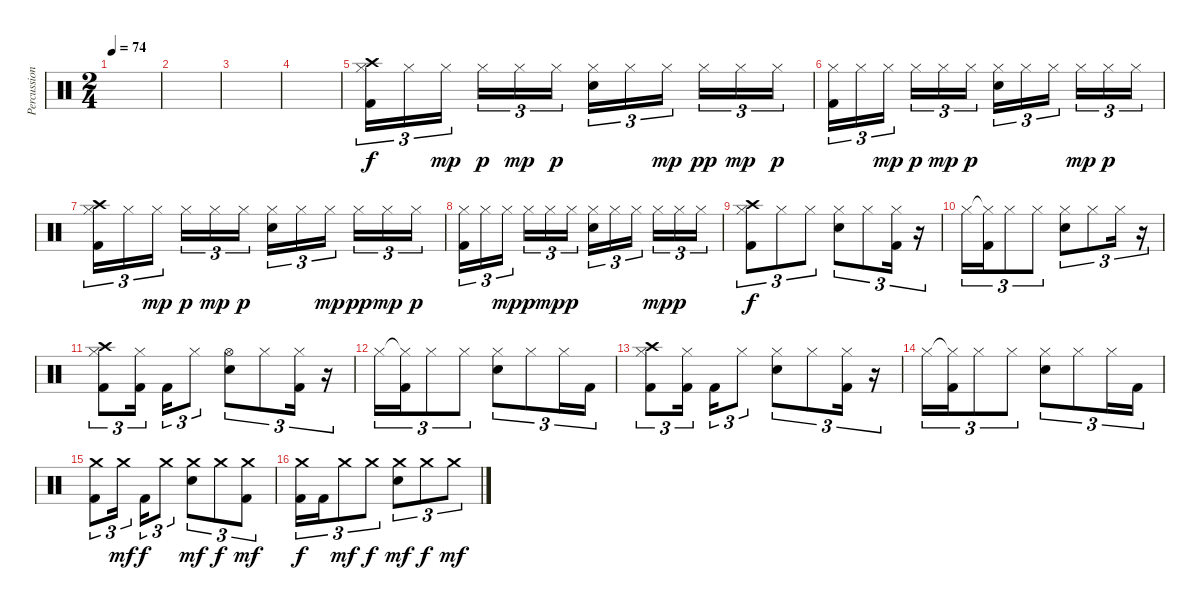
\track ("Percussion" "Percussion") {instrument percussion}
\staff {score}
\articulation defaults
\ts (2 4)
\tempo 74
\clef neutral
\ks c
|
|
|
|
("Crash high (hit)" "Hi-Hat (closed)" "Kick (hit) 2").16{tu (3 2)} "Hi-Hat (closed)".16{tu (3 2)} "Hi-Hat (closed)".16{tu (3 2) dy mp} "Hi-Hat (closed)".16{tu (3 2) dy p} "Hi-Hat (closed)".16{tu (3 2) dy mp} "Hi-Hat (closed)".16{tu (3 2) dy p} ("Hi-Hat (closed)" "Snare (hit) 2").16{tu (3 2)} "Hi-Hat (closed)".16{tu (3 2)} "Hi-Hat (closed)".16{tu (3 2) dy mp} "Hi-Hat (closed)".16{tu (3 2) dy pp} "Hi-Hat (closed)".16{tu (3 2) dy mp} "Hi-Hat (closed)".16{tu (3 2) dy p} |
("Hi-Hat (closed)" "Kick (hit) 2").16{tu (3 2)} "Hi-Hat (closed)".16{tu (3 2)} "Hi-Hat (closed)".16{tu (3 2) dy mp} "Hi-Hat (closed)".16{tu (3 2) dy p} "Hi-Hat (closed)".16{tu (3 2) dy mp} "Hi-Hat (closed)".16{tu (3 2) dy p} ("Hi-Hat (closed)" "Snare (hit) 2").16{tu (3 2)} "Hi-Hat (closed)".16{tu (3 2)} "Hi-Hat (closed)".16{tu (3 2)} "Hi-Hat (closed)".16{tu (3 2) dy mp} "Hi-Hat (closed)".16{tu (3 2) dy p} "Hi-Hat (closed)".16{tu (3 2)} |
("Crash high (hit)" "Hi-Hat (closed)" "Kick (hit) 2").16{tu (3 2)} "Hi-Hat (closed)".16{tu (3 2)} "Hi-Hat (closed)".16{tu (3 2) dy mp} "Hi-Hat (closed)".16{tu (3 2) dy p} "Hi-Hat (closed)".16{tu (3 2) dy mp} "Hi-Hat (closed)".16{tu (3 2) dy p} ("Hi-Hat (closed)" "Snare (hit) 2").16{tu (3 2)} "Hi-Hat (closed)".16{tu (3 2)} "Hi-Hat (closed)".16{tu (3 2) dy mp} "Hi-Hat (closed)".16{tu (3 2) dy pp} "Hi-Hat (closed)".16{tu (3 2) dy mp} "Hi-Hat (closed)".16{tu (3 2) dy p} |
("Hi-Hat (closed)" "Kick (hit) 2").16{tu (3 2)} "Hi-Hat (closed)".16{tu (3 2)} "Hi-Hat (closed)".16{tu (3 2) dy mp} "Hi-Hat (closed)".16{tu (3 2) dy p} "Hi-Hat (closed)".16{tu (3 2) dy mp} "Hi-Hat (closed)".16{tu (3 2) dy p} ("Hi-Hat (closed)" "Snare (hit) 2").16{tu (3 2)} "Hi-Hat (closed)".16{tu (3 2)} "Hi-Hat (closed)".16{tu (3 2)} "Hi-Hat (closed)".16{tu (3 2) dy mp} "Hi-Hat (closed)".16{tu (3 2) dy p} "Hi-Hat (closed)".16{tu (3 2)} |
("Crash high (hit)" "Hi-Hat (closed)" "Kick (hit) 2").8{tu (3 2) dy f} "Hi-Hat (closed)".8{tu (3 2)} "Hi-Hat (closed)".8{tu (3 2)} ("Hi-Hat (closed)" "Snare (hit) 2").8{tu (3 2)} "Hi-Hat (closed)".8{tu (3 2)} ("Hi-Hat (closed)" "Kick (hit) 2").16{tu (3 2)} r.16{tu (3 2)} |
"Hi-Hat (closed)".16{tu (3 2)} ("Hi-Hat (closed)"{t} "Kick (hit) 2").16{tu (3 2)} "Hi-Hat (closed)".8{tu (3 2)} "Hi-Hat (closed)".8{tu (3 2)} ("Hi-Hat (closed)" "Snare (hit) 2").8{tu (3 2)} "Hi-Hat (closed)".8{tu (3 2)} "Hi-Hat (closed)".16{tu (3 2)} r.16{tu (3 2)} |
("Crash high (hit)" "Hi-Hat (closed)" "Kick (hit) 2").8{tu (3 2)} ("Hi-Hat (closed)" "Kick (hit) 2").16{tu (3 2)} "Kick (hit) 2".16{tu (3 2)} "Hi-Hat (closed)".8{tu (3 2)} ("Hi-Hat (open)" "Snare (hit) 2").8{tu (3 2)} "Hi-Hat (closed)".8{tu (3 2)} ("Hi-Hat (closed)" "Kick (hit) 2").16{tu (3 2)} r.16{tu (3 2)} |
"Hi-Hat (closed)".16{tu (3 2)} ("Hi-Hat (closed)"{t} "Kick (hit) 2").16{tu (3 2)} "Hi-Hat (closed)".8{tu (3 2)} "Hi-Hat (closed)".8{tu (3 2)} ("Hi-Hat (closed)" "Snare (hit) 2").8{tu (3 2)} "Hi-Hat (closed)".8{tu (3 2)} "Hi-Hat (closed)".16{tu (3 2)} "Kick (hit) 2".16{tu (3 2)} |
("Crash high (hit)" "Hi-Hat (closed)" "Kick (hit) 2").8{tu (3 2)} ("Hi-Hat (closed)" "Kick (hit) 2").16{tu (3 2)} "Kick (hit) 2".16{tu (3 2)} "Hi-Hat (closed)".8{tu (3 2)} ("Hi-Hat (closed)" "Snare (hit) 2").8{tu (3 2)} "Hi-Hat (closed)".8{tu (3 2)} ("Hi-Hat (closed)" "Kick (hit) 2").16{tu (3 2)} r.16{tu (3 2)} |
"Hi-Hat (closed)".16{tu (3 2)} ("Hi-Hat (closed)"{t} "Kick (hit) 2").16{tu (3 2)} "Hi-Hat (closed)".8{tu (3 2)} "Hi-Hat (closed)".8{tu (3 2)} ("Hi-Hat (closed)" "Snare (hit) 2").8{tu (3 2)} "Hi-Hat (closed)".8{tu (3 2)} "Hi-Hat (closed)".16{tu (3 2)} "Kick (hit) 2".16{tu (3 2)} |
("Crash medium (hit)" "Kick (hit) 2").8{tu (3 2)} "Crash medium (hit)".16{tu (3 2) dy mf} "Kick (hit) 2".16{tu (3 2) dy f} "Crash medium (hit)".8{tu (3 2)} ("Crash medium (hit)" "Snare (hit) 2").8{tu (3 2) dy mf} "Crash medium (hit)".8{tu (3 2) dy f} ("Crash medium (hit)" "Kick (hit) 2").8{tu (3 2) dy mf} |
("Crash medium (hit)" "Kick (hit) 2").16{tu (3 2) dy f} "Kick (hit) 2".16{tu (3 2)} "Crash medium (hit)".8{tu (3 2) dy mf} "Crash medium (hit)".8{tu (3 2) dy f} ("Crash medium (hit)" "Snare (hit) 2").8{tu (3 2) dy mf} "Crash medium (hit)".8{tu (3 2) dy f} "Crash medium (hit)".8{tu (3 2) dy mf}
